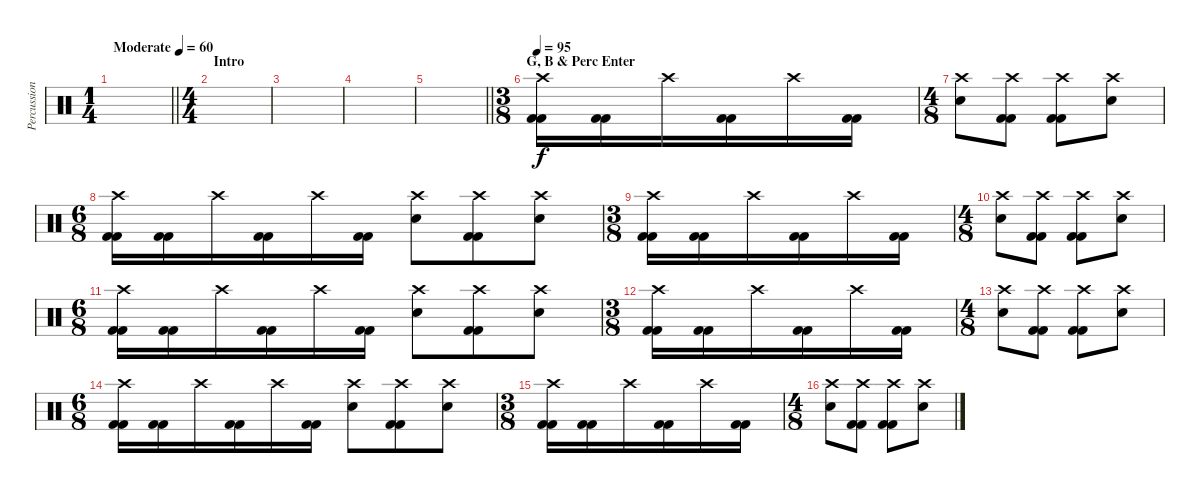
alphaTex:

\track ("Percussion" "Percussion") {instrument percussion}
\staff {score}
\articulation defaults
\ts (1 4)
\tempo (60 "Moderate")
\clef neutral
\barLineRight lightlight
\ks c
|
\ts (4 4)
\section ("" "Intro")
|
|
|
\barLineRight lightlight
|
\ts (3 8)
\section ("" "G, B & Perc Enter")
\tempo 95
("Crash high (hit)" "Kick (hit) 2" "Kick (hit) 2").16 ("Kick (hit) 2" "Kick (hit) 2").16 "Crash high (hit)".16 ("Kick (hit) 2" "Kick (hit) 2").16 "Crash high (hit)".16 ("Kick (hit) 2" "Kick (hit) 2").16 |
\ts (4 8)
("Crash high (hit)" "Electric Snare (hit)").8 ("Crash high (hit)" "Kick (hit) 2" "Kick (hit) 2").8 ("Crash high (hit)" "Kick (hit) 2" "Kick (hit) 2").8 ("Crash high (hit)" "Electric Snare (hit)").8 |
\ts (6 8)
("Crash high (hit)" "Kick (hit) 2" "Kick (hit) 2").16 ("Kick (hit) 2" "Kick (hit) 2").16 "Crash high (hit)".16 ("Kick (hit) 2" "Kick (hit) 2").16 "Crash high (hit)".16 ("Kick (hit) 2" "Kick (hit) 2").16 ("Crash high (hit)" "Electric Snare (hit)").8 ("Crash high (hit)" "Kick (hit) 2" "Kick (hit) 2").8 ("Crash high (hit)" "Electric Snare (hit)").8 |
\ts (3 8)
("Crash high (hit)" "Kick (hit) 2" "Kick (hit) 2").16 ("Kick (hit) 2" "Kick (hit) 2").16 "Crash high (hit)".16 ("Kick (hit) 2" "Kick (hit) 2").16 "Crash high (hit)".16 ("Kick (hit) 2" "Kick (hit) 2").16 |
\ts (4 8)
("Crash high (hit)" "Electric Snare (hit)").8 ("Crash high (hit)" "Kick (hit) 2" "Kick (hit) 2").8 ("Crash high (hit)" "Kick (hit) 2" "Kick (hit) 2").8 ("Crash high (hit)" "Electric Snare (hit)").8 |
\ts (6 8)
("Crash high (hit)" "Kick (hit) 2" "Kick (hit) 2").16 ("Kick (hit) 2" "Kick (hit) 2").16 "Crash high (hit)".16 ("Kick (hit) 2" "Kick (hit) 2").16 "Crash high (hit)".16 ("Kick (hit) 2" "Kick (hit) 2").16 ("Crash high (hit)" "Electric Snare (hit)").8 ("Crash high (hit)" "Kick (hit) 2" "Kick (hit) 2").8 ("Crash high (hit)" "Electric Snare (hit)").8 |
\ts (3 8)
("Crash high (hit)" "Kick (hit) 2" "Kick (hit) 2").16 ("Kick (hit) 2" "Kick (hit) 2").16 "Crash high (hit)".16 ("Kick (hit) 2" "Kick (hit) 2").16 "Crash high (hit)".16 ("Kick (hit) 2" "Kick (hit) 2").16 |
\ts (4 8)
("Crash high (hit)" "Electric Snare (hit)").8 ("Crash high (hit)" "Kick (hit) 2" "Kick (hit) 2").8 ("Crash high (hit)" "Kick (hit) 2" "Kick (hit) 2").8 ("Crash high (hit)" "Electric Snare (hit)").8 |
\ts (6 8)
("Crash high (hit)" "Kick (hit) 2" "Kick (hit) 2").16 ("Kick (hit) 2" "Kick (hit) 2").16 "Crash high (hit)".16 ("Kick (hit) 2" "Kick (hit) 2").16 "Crash high (hit)".16 ("Kick (hit) 2" "Kick (hit) 2").16 ("Crash high (hit)" "Electric Snare (hit)").8 ("Crash high (hit)" "Kick (hit) 2" "Kick (hit) 2").8 ("Crash high (hit)" "Electric Snare (hit)").8 |
\ts (3 8)
("Crash high (hit)" "Kick (hit) 2" "Kick (hit) 2").16 ("Kick (hit) 2" "Kick (hit) 2").16 "Crash high (hit)".16 ("Kick (hit) 2" "Kick (hit) 2").16 "Crash high (hit)".16 ("Kick (hit) 2" "Kick (hit) 2").16 |
\ts (4 8)
("Crash high (hit)" "Electric Snare (hit)").8 ("Crash high (hit)" "Kick (hit) 2" "Kick (hit) 2").8 ("Crash high (hit)" "Kick (hit) 2" "Kick (hit) 2").8 ("Crash high (hit)" "Electric Snare (hit)").8
